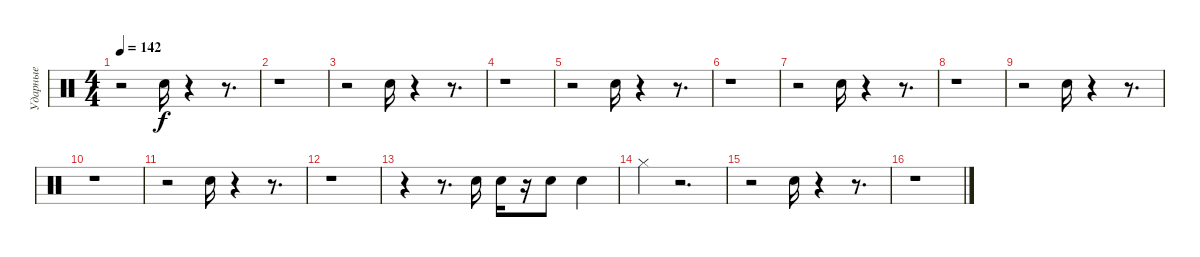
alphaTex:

\track ("Ударные" "Ударные") {instrument percussion}
\staff {score}
\articulation defaults
\ts (4 4)
\tempo 142
\clef neutral
\ks c
r.2{dy f} "Snare (hit) 2".16 r.4 r.8{d} |
r.1 |
r.2 "Snare (hit) 2".16 r.4 r.8{d} |
r.1 |
r.2 "Snare (hit) 2".16 r.4 r.8{d} |
r.1 |
r.2 "Snare (hit) 2".16 r.4 r.8{d} |
r.1 |
r.2 "Snare (hit) 2".16 r.4 r.8{d} |
r.1 |
r.2 "Snare (hit) 2".16 r.4 r.8{d} |
r.1 |
r.4 r.8{d} "Snare (hit) 2".16 "Snare (hit) 2".16 r.16 "Snare (hit) 2".8 "Snare (hit) 2".4 |
"Hi-Hat (closed)".4 r.2{d} |
r.2 "Snare (hit) 2".16 r.4 r.8{d} |
r.1
